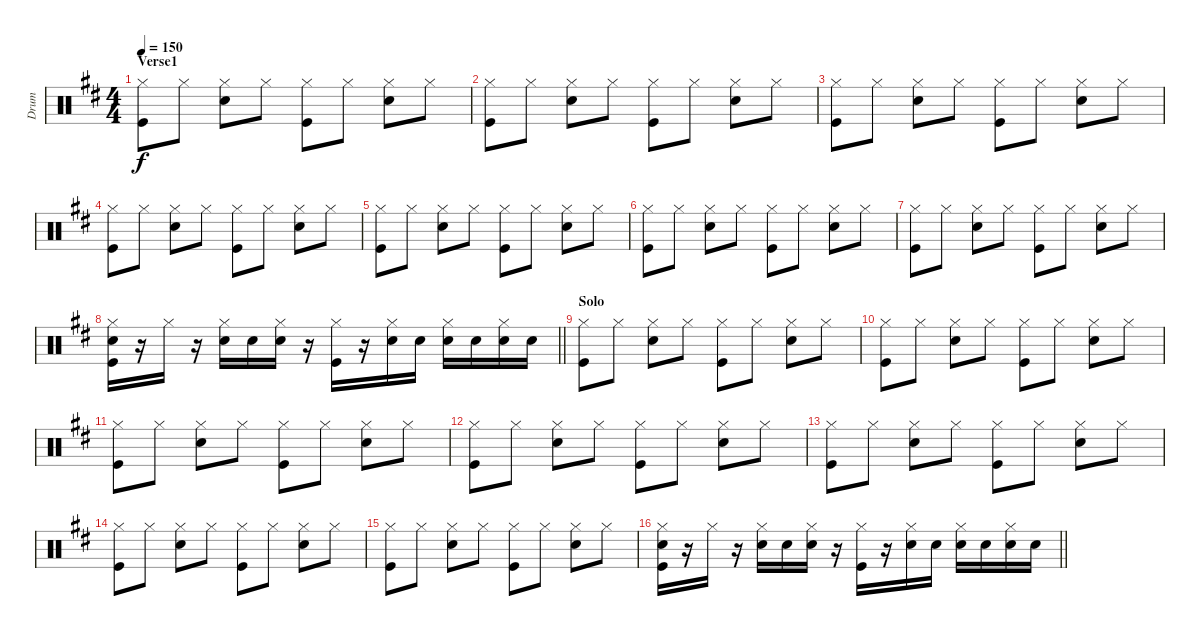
\track ("Drum" "Drum") {instrument percussion}
\staff {score}
\articulation defaults
\ts (4 4)
\section ("" "Verse1")
\tempo 150
\clef neutral
\ks d
("Hi-Hat (closed)" "Kick (hit)").8{dy f} "Hi-Hat (closed)".8 ("Hi-Hat (closed)" "Snare (hit) 2").8 "Hi-Hat (closed)".8 ("Hi-Hat (closed)" "Kick (hit)").8 "Hi-Hat (closed)".8 ("Hi-Hat (closed)" "Snare (hit) 2").8 "Hi-Hat (closed)".8 |
("Hi-Hat (closed)" "Kick (hit)").8 "Hi-Hat (closed)".8 ("Hi-Hat (closed)" "Snare (hit) 2").8 "Hi-Hat (closed)".8 ("Hi-Hat (closed)" "Kick (hit)").8 "Hi-Hat (closed)".8 ("Hi-Hat (closed)" "Snare (hit) 2").8 "Hi-Hat (closed)".8 |
("Hi-Hat (closed)" "Kick (hit)").8 "Hi-Hat (closed)".8 ("Hi-Hat (closed)" "Snare (hit) 2").8 "Hi-Hat (closed)".8 ("Hi-Hat (closed)" "Kick (hit)").8 "Hi-Hat (closed)".8 ("Hi-Hat (closed)" "Snare (hit) 2").8 "Hi-Hat (closed)".8 |
("Hi-Hat (closed)" "Kick (hit)").8 "Hi-Hat (closed)".8 ("Hi-Hat (closed)" "Snare (hit) 2").8 "Hi-Hat (closed)".8 ("Hi-Hat (closed)" "Kick (hit)").8 "Hi-Hat (closed)".8 ("Hi-Hat (closed)" "Snare (hit) 2").8 "Hi-Hat (closed)".8 |
("Hi-Hat (closed)" "Kick (hit)").8 "Hi-Hat (closed)".8 ("Hi-Hat (closed)" "Snare (hit) 2").8 "Hi-Hat (closed)".8 ("Hi-Hat (closed)" "Kick (hit)").8 "Hi-Hat (closed)".8 ("Hi-Hat (closed)" "Snare (hit) 2").8 "Hi-Hat (closed)".8 |
("Hi-Hat (closed)" "Kick (hit)").8 "Hi-Hat (closed)".8 ("Hi-Hat (closed)" "Snare (hit) 2").8 "Hi-Hat (closed)".8 ("Hi-Hat (closed)" "Kick (hit)").8 "Hi-Hat (closed)".8 ("Hi-Hat (closed)" "Snare (hit) 2").8 "Hi-Hat (closed)".8 |
("Hi-Hat (closed)" "Kick (hit)").8 "Hi-Hat (closed)".8 ("Hi-Hat (closed)" "Snare (hit) 2").8 "Hi-Hat (closed)".8 ("Hi-Hat (closed)" "Kick (hit)").8 "Hi-Hat (closed)".8 ("Hi-Hat (closed)" "Snare (hit) 2").8 "Hi-Hat (closed)".8 |
\barLineRight lightlight
("Hi-Hat (closed)" "Kick (hit)" "Snare (hit) 2").16 r.16 "Hi-Hat (closed)".16 r.16 ("Hi-Hat (closed)" "Snare (hit) 2").16 "Snare (hit) 2".16 ("Hi-Hat (closed)" "Snare (hit) 2").16 r.16 ("Hi-Hat (closed)" "Kick (hit)").16 r.16 ("Hi-Hat (closed)" "Snare (hit) 2").16 "Snare (hit) 2".16 ("Hi-Hat (closed)" "Snare (hit) 2").16 "Snare (hit) 2".16 ("Hi-Hat (closed)" "Snare (hit) 2").16 "Snare (hit) 2".16 |
\section ("" "Solo")
("Hi-Hat (closed)" "Kick (hit)").8 "Hi-Hat (closed)".8 ("Hi-Hat (closed)" "Snare (hit) 2").8 "Hi-Hat (closed)".8 ("Hi-Hat (closed)" "Kick (hit)").8 "Hi-Hat (closed)".8 ("Hi-Hat (closed)" "Snare (hit) 2").8 "Hi-Hat (closed)".8 |
("Hi-Hat (closed)" "Kick (hit)").8 "Hi-Hat (closed)".8 ("Hi-Hat (closed)" "Snare (hit) 2").8 "Hi-Hat (closed)".8 ("Hi-Hat (closed)" "Kick (hit)").8 "Hi-Hat (closed)".8 ("Hi-Hat (closed)" "Snare (hit) 2").8 "Hi-Hat (closed)".8 |
("Hi-Hat (closed)" "Kick (hit)").8 "Hi-Hat (closed)".8 ("Hi-Hat (closed)" "Snare (hit) 2").8 "Hi-Hat (closed)".8 ("Hi-Hat (closed)" "Kick (hit)").8 "Hi-Hat (closed)".8 ("Hi-Hat (closed)" "Snare (hit) 2").8 "Hi-Hat (closed)".8 |
("Hi-Hat (closed)" "Kick (hit)").8 "Hi-Hat (closed)".8 ("Hi-Hat (closed)" "Snare (hit) 2").8 "Hi-Hat (closed)".8 ("Hi-Hat (closed)" "Kick (hit)").8 "Hi-Hat (closed)".8 ("Hi-Hat (closed)" "Snare (hit) 2").8 "Hi-Hat (closed)".8 |
("Hi-Hat (closed)" "Kick (hit)").8 "Hi-Hat (closed)".8 ("Hi-Hat (closed)" "Snare (hit) 2").8 "Hi-Hat (closed)".8 ("Hi-Hat (closed)" "Kick (hit)").8 "Hi-Hat (closed)".8 ("Hi-Hat (closed)" "Snare (hit) 2").8 "Hi-Hat (closed)".8 |
("Hi-Hat (closed)" "Kick (hit)").8 "Hi-Hat (closed)".8 ("Hi-Hat (closed)" "Snare (hit) 2").8 "Hi-Hat (closed)".8 ("Hi-Hat (closed)" "Kick (hit)").8 "Hi-Hat (closed)".8 ("Hi-Hat (closed)" "Snare (hit) 2").8 "Hi-Hat (closed)".8 |
("Hi-Hat (closed)" "Kick (hit)").8 "Hi-Hat (closed)".8 ("Hi-Hat (closed)" "Snare (hit) 2").8 "Hi-Hat (closed)".8 ("Hi-Hat (closed)" "Kick (hit)").8 "Hi-Hat (closed)".8 ("Hi-Hat (closed)" "Snare (hit) 2").8 "Hi-Hat (closed)".8 |
\barLineRight lightlight
("Hi-Hat (closed)" "Kick (hit)" "Snare (hit) 2").16 r.16 "Hi-Hat (closed)".16 r.16 ("Hi-Hat (closed)" "Snare (hit) 2").16 "Snare (hit) 2".16 ("Hi-Hat (closed)" "Snare (hit) 2").16 r.16 ("Hi-Hat (closed)" "Kick (hit)").16 r.16 ("Hi-Hat (closed)" "Snare (hit) 2").16 "Snare (hit) 2".16 ("Hi-Hat (closed)" "Snare (hit) 2").16 "Snare (hit) 2".16 ("Hi-Hat (closed)" "Snare (hit) 2").16 "Snare (hit) 2".16
